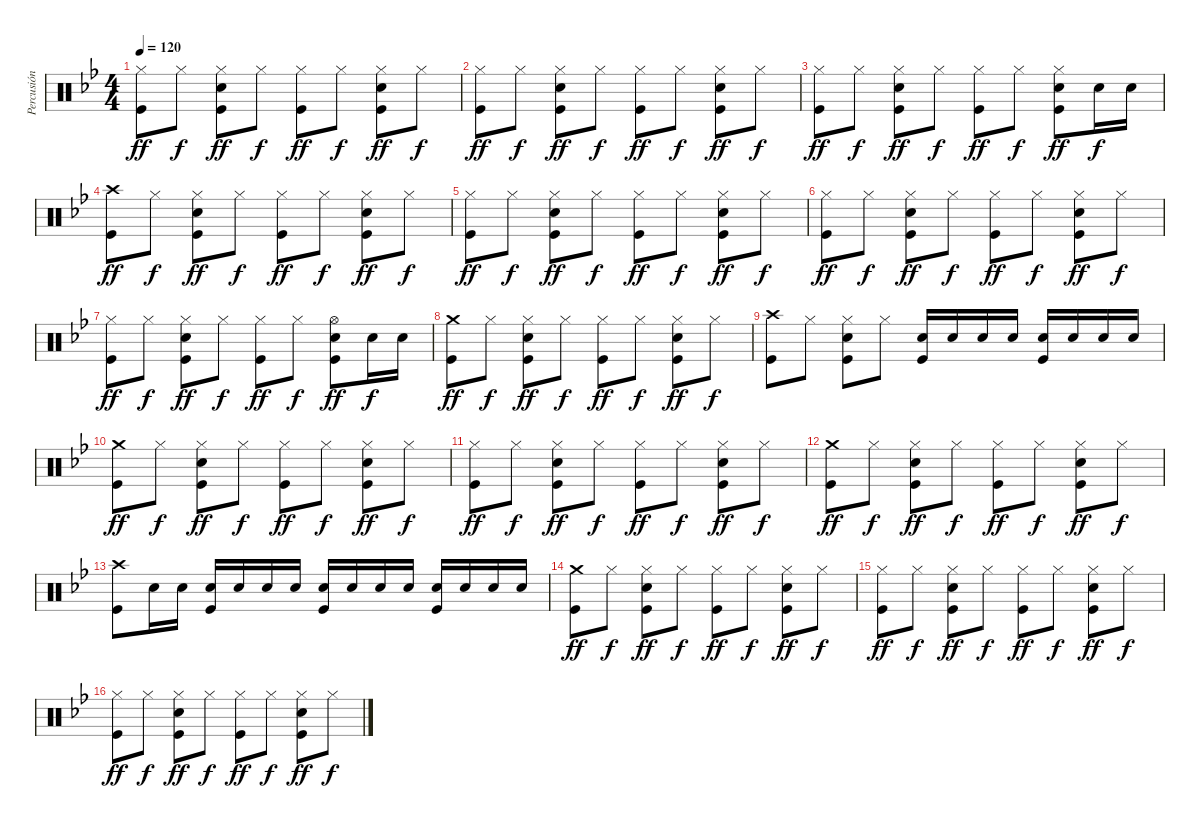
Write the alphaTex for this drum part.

\track ("Percusión" "Percusión") {instrument percussion}
\staff {score}
\articulation defaults
\ts (4 4)
\tempo 120
\clef neutral
\ks bb
("Hi-Hat (closed)" "Kick (hit)").8{dy ff} "Hi-Hat (closed)".8{dy f} ("Hi-Hat (closed)" "Snare (hit) 2" "Kick (hit)").8{dy ff} "Hi-Hat (closed)".8{dy f} ("Hi-Hat (closed)" "Kick (hit)").8{dy ff} "Hi-Hat (closed)".8{dy f} ("Hi-Hat (closed)" "Snare (hit) 2" "Kick (hit)").8{dy ff} "Hi-Hat (closed)".8{dy f} |
("Hi-Hat (closed)" "Kick (hit)").8{dy ff} "Hi-Hat (closed)".8{dy f} ("Hi-Hat (closed)" "Snare (hit) 2" "Kick (hit)").8{dy ff} "Hi-Hat (closed)".8{dy f} ("Hi-Hat (closed)" "Kick (hit)").8{dy ff} "Hi-Hat (closed)".8{dy f} ("Hi-Hat (closed)" "Snare (hit) 2" "Kick (hit)").8{dy ff} "Hi-Hat (closed)".8{dy f} |
("Hi-Hat (closed)" "Kick (hit)").8{dy ff} "Hi-Hat (closed)".8{dy f} ("Hi-Hat (closed)" "Snare (hit) 2" "Kick (hit)").8{dy ff} "Hi-Hat (closed)".8{dy f} ("Hi-Hat (closed)" "Kick (hit)").8{dy ff} "Hi-Hat (closed)".8{dy f} ("Hi-Hat (closed)" "Snare (hit) 2" "Kick (hit)").8{dy ff} "Snare (hit) 2".16{dy f} "Snare (hit) 2".16 |
("Crash high (hit)" "Kick (hit)").8{dy ff} "Hi-Hat (closed)".8{dy f} ("Hi-Hat (closed)" "Snare (hit) 2" "Kick (hit)").8{dy ff} "Hi-Hat (closed)".8{dy f} ("Hi-Hat (closed)" "Kick (hit)").8{dy ff} "Hi-Hat (closed)".8{dy f} ("Hi-Hat (closed)" "Snare (hit) 2" "Kick (hit)").8{dy ff} "Hi-Hat (closed)".8{dy f} |
("Hi-Hat (closed)" "Kick (hit)").8{dy ff} "Hi-Hat (closed)".8{dy f} ("Hi-Hat (closed)" "Snare (hit) 2" "Kick (hit)").8{dy ff} "Hi-Hat (closed)".8{dy f} ("Hi-Hat (closed)" "Kick (hit)").8{dy ff} "Hi-Hat (closed)".8{dy f} ("Hi-Hat (closed)" "Snare (hit) 2" "Kick (hit)").8{dy ff} "Hi-Hat (closed)".8{dy f} |
("Hi-Hat (closed)" "Kick (hit)").8{dy ff} "Hi-Hat (closed)".8{dy f} ("Hi-Hat (closed)" "Snare (hit) 2" "Kick (hit)").8{dy ff} "Hi-Hat (closed)".8{dy f} ("Hi-Hat (closed)" "Kick (hit)").8{dy ff} "Hi-Hat (closed)".8{dy f} ("Hi-Hat (closed)" "Snare (hit) 2" "Kick (hit)").8{dy ff} "Hi-Hat (closed)".8{dy f} |
("Hi-Hat (closed)" "Kick (hit)").8{dy ff} "Hi-Hat (closed)".8{dy f} ("Hi-Hat (closed)" "Snare (hit) 2" "Kick (hit)").8{dy ff} "Hi-Hat (closed)".8{dy f} ("Hi-Hat (closed)" "Kick (hit)").8{dy ff} "Hi-Hat (closed)".8{dy f} ("Hi-Hat (open)" "Snare (hit) 2" "Kick (hit)").8{dy ff} "Snare (hit) 2".16{dy f} "Snare (hit) 2".16 |
("Crash medium (hit)" "Kick (hit)").8{dy ff} "Hi-Hat (closed)".8{dy f} ("Hi-Hat (closed)" "Snare (hit) 2" "Kick (hit)").8{dy ff} "Hi-Hat (closed)".8{dy f} ("Hi-Hat (closed)" "Kick (hit)").8{dy ff} "Hi-Hat (closed)".8{dy f} ("Hi-Hat (closed)" "Snare (hit) 2" "Kick (hit)").8{dy ff} "Hi-Hat (closed)".8{dy f} |
("Crash high (hit)" "Kick (hit)").8 "Hi-Hat (closed)".8 ("Hi-Hat (closed)" "Snare (hit) 2" "Kick (hit)").8 "Hi-Hat (closed)".8 ("Snare (hit) 2" "Kick (hit)").16 "Snare (hit) 2".16 "Snare (hit) 2".16 "Snare (hit) 2".16 ("Snare (hit) 2" "Kick (hit)").16 "Snare (hit) 2".16 "Snare (hit) 2".16 "Snare (hit) 2".16 |
("Crash medium (hit)" "Kick (hit)").8{dy ff} "Hi-Hat (closed)".8{dy f} ("Hi-Hat (closed)" "Snare (hit) 2" "Kick (hit)").8{dy ff} "Hi-Hat (closed)".8{dy f} ("Hi-Hat (closed)" "Kick (hit)").8{dy ff} "Hi-Hat (closed)".8{dy f} ("Hi-Hat (closed)" "Snare (hit) 2" "Kick (hit)").8{dy ff} "Hi-Hat (closed)".8{dy f} |
("Hi-Hat (closed)" "Kick (hit)").8{dy ff} "Hi-Hat (closed)".8{dy f} ("Hi-Hat (closed)" "Snare (hit) 2" "Kick (hit)").8{dy ff} "Hi-Hat (closed)".8{dy f} ("Hi-Hat (closed)" "Kick (hit)").8{dy ff} "Hi-Hat (closed)".8{dy f} ("Hi-Hat (closed)" "Snare (hit) 2" "Kick (hit)").8{dy ff} "Hi-Hat (closed)".8{dy f} |
("Crash medium (hit)" "Kick (hit)").8{dy ff} "Hi-Hat (closed)".8{dy f} ("Hi-Hat (closed)" "Snare (hit) 2" "Kick (hit)").8{dy ff} "Hi-Hat (closed)".8{dy f} ("Hi-Hat (closed)" "Kick (hit)").8{dy ff} "Hi-Hat (closed)".8{dy f} ("Hi-Hat (closed)" "Snare (hit) 2" "Kick (hit)").8{dy ff} "Hi-Hat (closed)".8{dy f} |
("Crash high (hit)" "Kick (hit)").8 "Snare (hit) 2".16 "Snare (hit) 2".16 ("Snare (hit) 2" "Kick (hit)").16 "Snare (hit) 2".16 "Snare (hit) 2".16 "Snare (hit) 2".16 ("Snare (hit) 2" "Kick (hit)").16 "Snare (hit) 2".16 "Snare (hit) 2".16 "Snare (hit) 2".16 ("Snare (hit) 2" "Kick (hit)").16 "Snare (hit) 2".16 "Snare (hit) 2".16 "Snare (hit) 2".16 |
("Crash medium (hit)" "Kick (hit)").8{dy ff} "Hi-Hat (closed)".8{dy f} ("Hi-Hat (closed)" "Snare (hit) 2" "Kick (hit)").8{dy ff} "Hi-Hat (closed)".8{dy f} ("Hi-Hat (closed)" "Kick (hit)").8{dy ff} "Hi-Hat (closed)".8{dy f} ("Hi-Hat (closed)" "Snare (hit) 2" "Kick (hit)").8{dy ff} "Hi-Hat (closed)".8{dy f} |
("Hi-Hat (closed)" "Kick (hit)").8{dy ff} "Hi-Hat (closed)".8{dy f} ("Hi-Hat (closed)" "Snare (hit) 2" "Kick (hit)").8{dy ff} "Hi-Hat (closed)".8{dy f} ("Hi-Hat (closed)" "Kick (hit)").8{dy ff} "Hi-Hat (closed)".8{dy f} ("Hi-Hat (closed)" "Snare (hit) 2" "Kick (hit)").8{dy ff} "Hi-Hat (closed)".8{dy f} |
("Hi-Hat (closed)" "Kick (hit)").8{dy ff} "Hi-Hat (closed)".8{dy f} ("Hi-Hat (closed)" "Snare (hit) 2" "Kick (hit)").8{dy ff} "Hi-Hat (closed)".8{dy f} ("Hi-Hat (closed)" "Kick (hit)").8{dy ff} "Hi-Hat (closed)".8{dy f} ("Hi-Hat (closed)" "Snare (hit) 2" "Kick (hit)").8{dy ff} "Hi-Hat (closed)".8{dy f}
